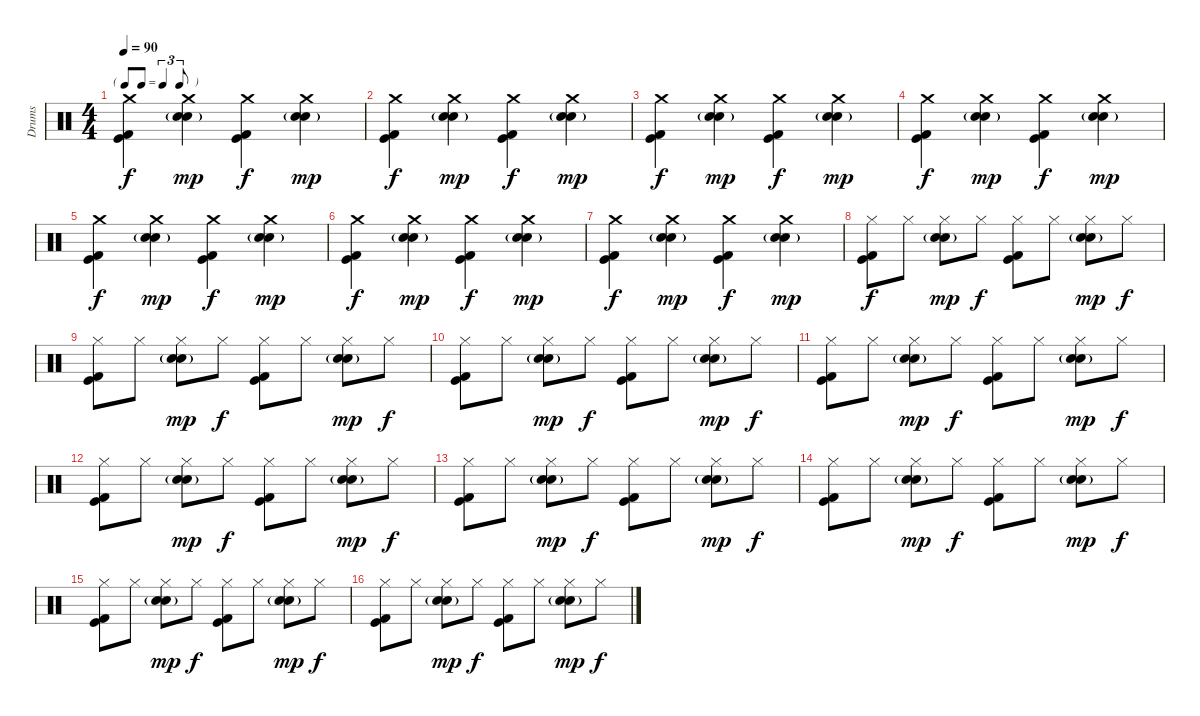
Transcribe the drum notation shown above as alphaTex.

\track ("Drums" "Drums") {instrument percussion}
\staff {score}
\articulation defaults
\ts (4 4)
\tf triplet8th
\tempo 90
\clef neutral
\ks c
("Crash medium (hit)" "Kick (hit)" "Kick (hit) 2").4{dy f} ("Crash medium (hit)" "Snare (hit) 2" "Hand Clap (hit)"{g}).4{dy mp} ("Crash medium (hit)" "Kick (hit)" "Kick (hit) 2").4{dy f} ("Crash medium (hit)" "Snare (hit) 2" "Hand Clap (hit)"{g}).4{dy mp} |
("Crash medium (hit)" "Kick (hit)" "Kick (hit) 2").4{dy f} ("Crash medium (hit)" "Snare (hit) 2" "Hand Clap (hit)"{g}).4{dy mp} ("Crash medium (hit)" "Kick (hit)" "Kick (hit) 2").4{dy f} ("Crash medium (hit)" "Snare (hit) 2" "Hand Clap (hit)"{g}).4{dy mp} |
("Crash medium (hit)" "Kick (hit)" "Kick (hit) 2").4{dy f} ("Crash medium (hit)" "Snare (hit) 2" "Hand Clap (hit)"{g}).4{dy mp} ("Crash medium (hit)" "Kick (hit)" "Kick (hit) 2").4{dy f} ("Crash medium (hit)" "Snare (hit) 2" "Hand Clap (hit)"{g}).4{dy mp} |
("Crash medium (hit)" "Kick (hit)" "Kick (hit) 2").4{dy f} ("Crash medium (hit)" "Snare (hit) 2" "Hand Clap (hit)"{g}).4{dy mp} ("Crash medium (hit)" "Kick (hit)" "Kick (hit) 2").4{dy f} ("Crash medium (hit)" "Snare (hit) 2" "Hand Clap (hit)"{g}).4{dy mp} |
("Crash medium (hit)" "Kick (hit)" "Kick (hit) 2").4{dy f} ("Crash medium (hit)" "Snare (hit) 2" "Hand Clap (hit)"{g}).4{dy mp} ("Crash medium (hit)" "Kick (hit)" "Kick (hit) 2").4{dy f} ("Crash medium (hit)" "Snare (hit) 2" "Hand Clap (hit)"{g}).4{dy mp} |
("Crash medium (hit)" "Kick (hit)" "Kick (hit) 2").4{dy f} ("Crash medium (hit)" "Snare (hit) 2" "Hand Clap (hit)"{g}).4{dy mp} ("Crash medium (hit)" "Kick (hit)" "Kick (hit) 2").4{dy f} ("Crash medium (hit)" "Snare (hit) 2" "Hand Clap (hit)"{g}).4{dy mp} |
("Crash medium (hit)" "Kick (hit)" "Kick (hit) 2").4{dy f} ("Crash medium (hit)" "Snare (hit) 2" "Hand Clap (hit)"{g}).4{dy mp} ("Crash medium (hit)" "Kick (hit)" "Kick (hit) 2").4{dy f} ("Crash medium (hit)" "Snare (hit) 2" "Hand Clap (hit)"{g}).4{dy mp} |
("Hi-Hat (closed)" "Kick (hit)" "Kick (hit) 2").8{dy f} "Hi-Hat (closed)".8 ("Hi-Hat (closed)" "Snare (hit) 2" "Hand Clap (hit)"{g}).8{dy mp} "Hi-Hat (closed)".8{dy f} ("Hi-Hat (closed)" "Kick (hit)" "Kick (hit) 2").8 "Hi-Hat (closed)".8 ("Hi-Hat (closed)" "Snare (hit) 2" "Hand Clap (hit)"{g}).8{dy mp} "Hi-Hat (closed)".8{dy f} |
("Hi-Hat (closed)" "Kick (hit)" "Kick (hit) 2").8 "Hi-Hat (closed)".8 ("Hi-Hat (closed)" "Snare (hit) 2" "Hand Clap (hit)"{g}).8{dy mp} "Hi-Hat (closed)".8{dy f} ("Hi-Hat (closed)" "Kick (hit)" "Kick (hit) 2").8 "Hi-Hat (closed)".8 ("Hi-Hat (closed)" "Snare (hit) 2" "Hand Clap (hit)"{g}).8{dy mp} "Hi-Hat (closed)".8{dy f} |
("Hi-Hat (closed)" "Kick (hit)" "Kick (hit) 2").8 "Hi-Hat (closed)".8 ("Hi-Hat (closed)" "Snare (hit) 2" "Hand Clap (hit)"{g}).8{dy mp} "Hi-Hat (closed)".8{dy f} ("Hi-Hat (closed)" "Kick (hit)" "Kick (hit) 2").8 "Hi-Hat (closed)".8 ("Hi-Hat (closed)" "Snare (hit) 2" "Hand Clap (hit)"{g}).8{dy mp} "Hi-Hat (closed)".8{dy f} |
("Hi-Hat (closed)" "Kick (hit)" "Kick (hit) 2").8 "Hi-Hat (closed)".8 ("Hi-Hat (closed)" "Snare (hit) 2" "Hand Clap (hit)"{g}).8{dy mp} "Hi-Hat (closed)".8{dy f} ("Hi-Hat (closed)" "Kick (hit)" "Kick (hit) 2").8 "Hi-Hat (closed)".8 ("Hi-Hat (closed)" "Snare (hit) 2" "Hand Clap (hit)"{g}).8{dy mp} "Hi-Hat (closed)".8{dy f} |
("Hi-Hat (closed)" "Kick (hit)" "Kick (hit) 2").8 "Hi-Hat (closed)".8 ("Hi-Hat (closed)" "Snare (hit) 2" "Hand Clap (hit)"{g}).8{dy mp} "Hi-Hat (closed)".8{dy f} ("Hi-Hat (closed)" "Kick (hit)" "Kick (hit) 2").8 "Hi-Hat (closed)".8 ("Hi-Hat (closed)" "Snare (hit) 2" "Hand Clap (hit)"{g}).8{dy mp} "Hi-Hat (closed)".8{dy f} |
("Hi-Hat (closed)" "Kick (hit)" "Kick (hit) 2").8 "Hi-Hat (closed)".8 ("Hi-Hat (closed)" "Snare (hit) 2" "Hand Clap (hit)"{g}).8{dy mp} "Hi-Hat (closed)".8{dy f} ("Hi-Hat (closed)" "Kick (hit)" "Kick (hit) 2").8 "Hi-Hat (closed)".8 ("Hi-Hat (closed)" "Snare (hit) 2" "Hand Clap (hit)"{g}).8{dy mp} "Hi-Hat (closed)".8{dy f} |
("Hi-Hat (closed)" "Kick (hit)" "Kick (hit) 2").8 "Hi-Hat (closed)".8 ("Hi-Hat (closed)" "Snare (hit) 2" "Hand Clap (hit)"{g}).8{dy mp} "Hi-Hat (closed)".8{dy f} ("Hi-Hat (closed)" "Kick (hit)" "Kick (hit) 2").8 "Hi-Hat (closed)".8 ("Hi-Hat (closed)" "Snare (hit) 2" "Hand Clap (hit)"{g}).8{dy mp} "Hi-Hat (closed)".8{dy f} |
("Hi-Hat (closed)" "Kick (hit)" "Kick (hit) 2").8 "Hi-Hat (closed)".8 ("Hi-Hat (closed)" "Snare (hit) 2" "Hand Clap (hit)"{g}).8{dy mp} "Hi-Hat (closed)".8{dy f} ("Hi-Hat (closed)" "Kick (hit)" "Kick (hit) 2").8 "Hi-Hat (closed)".8 ("Hi-Hat (closed)" "Snare (hit) 2" "Hand Clap (hit)"{g}).8{dy mp} "Hi-Hat (closed)".8{dy f} |
("Hi-Hat (closed)" "Kick (hit)" "Kick (hit) 2").8 "Hi-Hat (closed)".8 ("Hi-Hat (closed)" "Snare (hit) 2" "Hand Clap (hit)"{g}).8{dy mp} "Hi-Hat (closed)".8{dy f} ("Hi-Hat (closed)" "Kick (hit)" "Kick (hit) 2").8 "Hi-Hat (closed)".8 ("Hi-Hat (closed)" "Snare (hit) 2" "Hand Clap (hit)"{g}).8{dy mp} "Hi-Hat (closed)".8{dy f}
